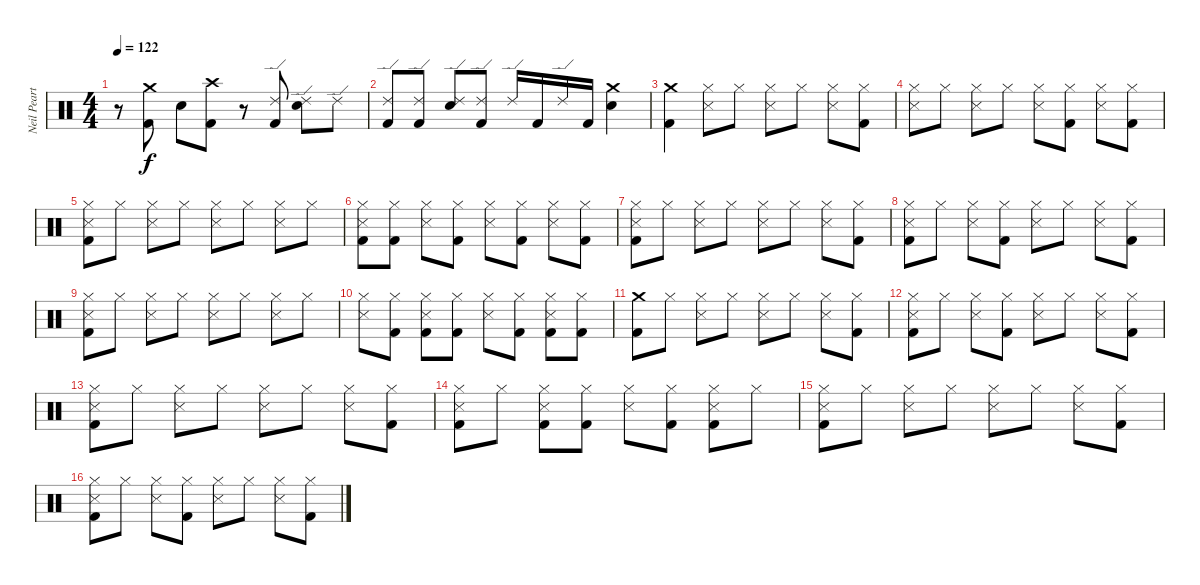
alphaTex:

\track ("Neil Peart" "Neil Peart") {instrument percussion}
\staff {score}
\articulation defaults
\ts (4 4)
\tempo 122
\clef neutral
\ks c
r.8{dy f} ("Kick (hit) 2" "Crash medium (hit)").8 "Snare (hit) 2".8 ("Kick (hit) 2" "Crash high (hit)").8 r.8 ("Ride (edge) 2" "Kick (hit) 2").8 ("Ride (edge) 2" "Snare (hit) 2").8 "Ride (edge) 2".8 |
("Ride (edge) 2" "Kick (hit) 2").8 ("Ride (edge) 2" "Kick (hit) 2").8 ("Ride (edge) 2" "Snare (hit) 2").8 ("Kick (hit) 2" "Ride (edge) 2").8 "Ride (edge) 2".16 "Kick (hit) 2".16 "Ride (edge) 2".16 "Kick (hit) 2".16 ("Snare (hit) 2" "Crash medium (hit)").4 |
("Kick (hit) 2" "Crash medium (hit)").4 ("Snare (side stick) 3" "Hi-Hat (closed)").8 "Hi-Hat (closed)".8 ("Snare (side stick) 3" "Hi-Hat (closed)").8 "Hi-Hat (closed)".8 ("Snare (side stick) 3" "Hi-Hat (closed)").8 ("Kick (hit) 2" "Hi-Hat (closed)").8 |
("Hi-Hat (closed)" "Snare (side stick) 3").8 "Hi-Hat (closed)".8 ("Hi-Hat (closed)" "Snare (side stick) 3").8 "Hi-Hat (closed)".8 ("Snare (side stick) 3" "Hi-Hat (closed)").8 ("Hi-Hat (closed)" "Kick (hit) 2").8 ("Snare (side stick) 3" "Hi-Hat (closed)").8 ("Hi-Hat (closed)" "Kick (hit) 2").8 |
("Hi-Hat (closed)" "Kick (hit) 2" "Snare (side stick) 3").8 "Hi-Hat (closed)".8 ("Hi-Hat (closed)" "Snare (side stick) 3").8 "Hi-Hat (closed)".8 ("Snare (side stick) 3" "Hi-Hat (closed)").8 "Hi-Hat (closed)".8 ("Snare (side stick) 3" "Hi-Hat (closed)").8 "Hi-Hat (closed)".8 |
("Kick (hit) 2" "Snare (side stick) 3" "Hi-Hat (closed)").8 ("Hi-Hat (closed)" "Kick (hit) 2").8 ("Snare (side stick) 3" "Hi-Hat (closed)").8 ("Kick (hit) 2" "Hi-Hat (closed)").8 ("Hi-Hat (closed)" "Snare (side stick) 3").8 ("Hi-Hat (closed)" "Kick (hit) 2").8 ("Hi-Hat (closed)" "Snare (side stick) 3").8 ("Kick (hit) 2" "Hi-Hat (closed)").8 |
("Hi-Hat (closed)" "Snare (side stick) 3" "Kick (hit) 2").8 "Hi-Hat (closed)".8 ("Hi-Hat (closed)" "Snare (side stick) 3").8 "Hi-Hat (closed)".8 ("Snare (side stick) 3" "Hi-Hat (closed)").8 "Hi-Hat (closed)".8 ("Hi-Hat (closed)" "Snare (side stick) 3").8 ("Kick (hit) 2" "Hi-Hat (closed)").8 |
("Snare (side stick) 3" "Kick (hit) 2" "Hi-Hat (closed)").8 "Hi-Hat (closed)".8 ("Snare (side stick) 3" "Hi-Hat (closed)").8 ("Kick (hit) 2" "Hi-Hat (closed)").8 ("Snare (side stick) 3" "Hi-Hat (closed)").8 "Hi-Hat (closed)".8 ("Snare (side stick) 3" "Hi-Hat (closed)").8 ("Kick (hit) 2" "Hi-Hat (closed)").8 |
("Kick (hit) 2" "Hi-Hat (closed)" "Snare (side stick) 3").8 "Hi-Hat (closed)".8 ("Hi-Hat (closed)" "Snare (side stick) 3").8 "Hi-Hat (closed)".8 ("Snare (side stick) 3" "Hi-Hat (closed)").8 "Hi-Hat (closed)".8 ("Hi-Hat (closed)" "Snare (side stick) 3").8 "Hi-Hat (closed)".8 |
("Snare (side stick) 3" "Hi-Hat (closed)").8 ("Kick (hit) 2" "Hi-Hat (closed)").8 ("Hi-Hat (closed)" "Kick (hit) 2" "Snare (side stick) 3").8 ("Kick (hit) 2" "Hi-Hat (closed)").8 ("Snare (side stick) 3" "Hi-Hat (closed)").8 ("Kick (hit) 2" "Hi-Hat (closed)").8 ("Kick (hit) 2" "Hi-Hat (closed)" "Snare (side stick) 3").8 ("Hi-Hat (closed)" "Kick (hit) 2").8 |
("Crash medium (hit)" "Kick (hit) 2").8 "Hi-Hat (closed)".8 ("Snare (side stick) 3" "Hi-Hat (closed)").8 "Hi-Hat (closed)".8 ("Snare (side stick) 3" "Hi-Hat (closed)").8 "Hi-Hat (closed)".8 ("Hi-Hat (closed)" "Snare (side stick) 3").8 ("Hi-Hat (closed)" "Kick (hit) 2").8 |
("Snare (side stick) 3" "Hi-Hat (closed)" "Kick (hit) 2").8 "Hi-Hat (closed)".8 ("Hi-Hat (closed)" "Snare (side stick) 3").8 ("Kick (hit) 2" "Hi-Hat (closed)").8 ("Hi-Hat (closed)" "Snare (side stick) 3").8 "Hi-Hat (closed)".8 ("Snare (side stick) 3" "Hi-Hat (closed)").8 ("Hi-Hat (closed)" "Kick (hit) 2").8 |
("Kick (hit) 2" "Hi-Hat (closed)" "Snare (side stick) 3").8 "Hi-Hat (closed)".8 ("Hi-Hat (closed)" "Snare (side stick) 3").8 "Hi-Hat (closed)".8 ("Hi-Hat (closed)" "Snare (side stick) 3").8 "Hi-Hat (closed)".8 ("Snare (side stick) 3" "Hi-Hat (closed)").8 ("Kick (hit) 2" "Hi-Hat (closed)").8 |
("Snare (side stick) 3" "Kick (hit) 2" "Hi-Hat (closed)").8 "Hi-Hat (closed)".8 ("Snare (side stick) 3" "Kick (hit) 2" "Hi-Hat (closed)").8 ("Kick (hit) 2" "Hi-Hat (closed)").8 ("Snare (side stick) 3" "Hi-Hat (closed)").8 ("Kick (hit) 2" "Hi-Hat (closed)").8 ("Snare (side stick) 3" "Hi-Hat (closed)" "Kick (hit) 2").8 "Hi-Hat (closed)".8 |
("Hi-Hat (closed)" "Snare (side stick) 3" "Kick (hit) 2").8 "Hi-Hat (closed)".8 ("Snare (side stick) 3" "Hi-Hat (closed)").8 "Hi-Hat (closed)".8 ("Snare (side stick) 3" "Hi-Hat (closed)").8 "Hi-Hat (closed)".8 ("Hi-Hat (closed)" "Snare (side stick) 3").8 ("Hi-Hat (closed)" "Kick (hit) 2").8 |
("Snare (side stick) 3" "Kick (hit) 2" "Hi-Hat (closed)").8 "Hi-Hat (closed)".8 ("Snare (side stick) 3" "Hi-Hat (closed)").8 ("Kick (hit) 2" "Hi-Hat (closed)").8 ("Hi-Hat (closed)" "Snare (side stick) 3").8 "Hi-Hat (closed)".8 ("Snare (side stick) 3" "Hi-Hat (closed)").8 ("Kick (hit) 2" "Hi-Hat (closed)").8
